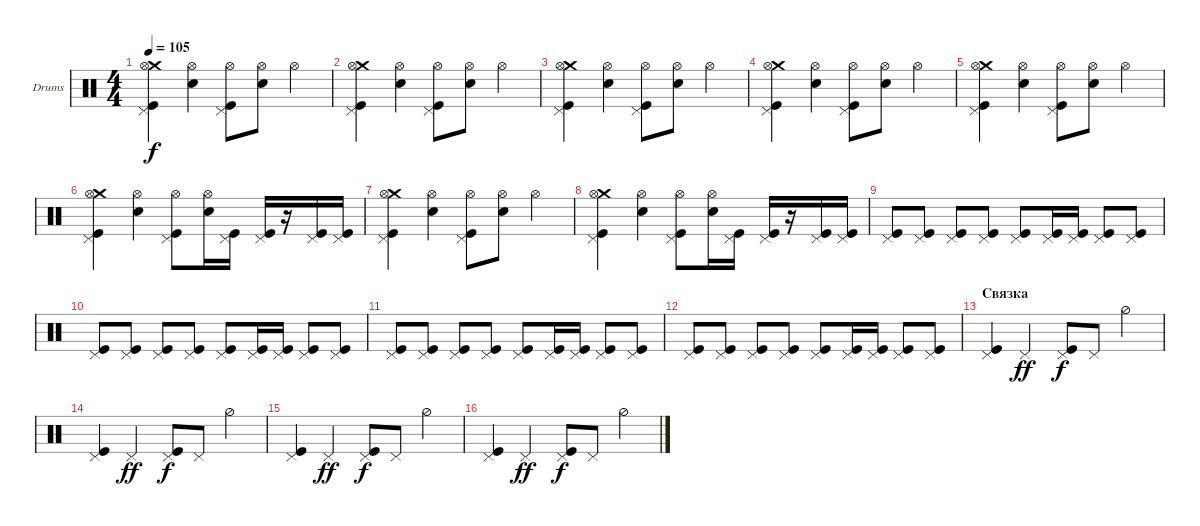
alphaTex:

\defaultSystemsLayout 4
\bracketExtendMode groupsimilarinstruments
\firstSystemTrackNameOrientation horizontal
\otherSystemsTrackNameOrientation horizontal
\track ("Е. Кулаков" "Drums") {instrument percussion}
\staff {score}
\articulation defaults
\ts (4 4)
\tempo 105
\clef neutral
\ks c
("Crash medium (hit)" "Pedal Hi-Hat (hit)" "Kick (hit)" "Hi-Hat (open)").4{dy f} ("Snare (hit) 2" "Hi-Hat (open)").4 ("Pedal Hi-Hat (hit)" "Kick (hit)" "Hi-Hat (open)").8 ("Snare (hit) 2" "Hi-Hat (open)").8 "Hi-Hat (open)".4 |
("Crash medium (hit)" "Pedal Hi-Hat (hit)" "Kick (hit)" "Hi-Hat (open)").4 ("Snare (hit) 2" "Hi-Hat (open)").4 ("Pedal Hi-Hat (hit)" "Kick (hit)" "Hi-Hat (open)").8 ("Snare (hit) 2" "Hi-Hat (open)").8 "Hi-Hat (open)".4 |
("Crash medium (hit)" "Pedal Hi-Hat (hit)" "Kick (hit)" "Hi-Hat (open)").4 ("Snare (hit) 2" "Hi-Hat (open)").4 ("Pedal Hi-Hat (hit)" "Kick (hit)" "Hi-Hat (open)").8 ("Snare (hit) 2" "Hi-Hat (open)").8 "Hi-Hat (open)".4 |
("Crash medium (hit)" "Pedal Hi-Hat (hit)" "Kick (hit)" "Hi-Hat (open)").4 ("Snare (hit) 2" "Hi-Hat (open)").4 ("Pedal Hi-Hat (hit)" "Kick (hit)" "Hi-Hat (open)").8 ("Snare (hit) 2" "Hi-Hat (open)").8 "Hi-Hat (open)".4 |
("Crash medium (hit)" "Pedal Hi-Hat (hit)" "Kick (hit)" "Hi-Hat (open)").4 ("Snare (hit) 2" "Hi-Hat (open)").4 ("Pedal Hi-Hat (hit)" "Kick (hit)" "Hi-Hat (open)").8 ("Snare (hit) 2" "Hi-Hat (open)").8 "Hi-Hat (open)".4 |
("Crash medium (hit)" "Pedal Hi-Hat (hit)" "Kick (hit)" "Hi-Hat (open)").4 ("Snare (hit) 2" "Hi-Hat (open)").4 ("Pedal Hi-Hat (hit)" "Kick (hit)" "Hi-Hat (open)").8 ("Snare (hit) 2" "Hi-Hat (open)").16 ("Pedal Hi-Hat (hit)" "Kick (hit)").16 ("Pedal Hi-Hat (hit)" "Kick (hit)").16 r.16 ("Pedal Hi-Hat (hit)" "Kick (hit)").16 ("Pedal Hi-Hat (hit)" "Kick (hit)").16 |
("Crash medium (hit)" "Pedal Hi-Hat (hit)" "Kick (hit)" "Hi-Hat (open)").4 ("Snare (hit) 2" "Hi-Hat (open)").4 ("Pedal Hi-Hat (hit)" "Kick (hit)" "Hi-Hat (open)").8 ("Snare (hit) 2" "Hi-Hat (open)").8 "Hi-Hat (open)".4 |
("Crash medium (hit)" "Pedal Hi-Hat (hit)" "Kick (hit)" "Hi-Hat (open)").4 ("Snare (hit) 2" "Hi-Hat (open)").4 ("Pedal Hi-Hat (hit)" "Kick (hit)" "Hi-Hat (open)").8 ("Snare (hit) 2" "Hi-Hat (open)").16 ("Pedal Hi-Hat (hit)" "Kick (hit)").16 ("Pedal Hi-Hat (hit)" "Kick (hit)").16 r.16 ("Pedal Hi-Hat (hit)" "Kick (hit)").16 ("Pedal Hi-Hat (hit)" "Kick (hit)").16 |
("Pedal Hi-Hat (hit)" "Kick (hit)").8 ("Pedal Hi-Hat (hit)" "Kick (hit)").8 ("Pedal Hi-Hat (hit)" "Kick (hit)").8 ("Pedal Hi-Hat (hit)" "Kick (hit)").8 ("Pedal Hi-Hat (hit)" "Kick (hit)").8 ("Pedal Hi-Hat (hit)" "Kick (hit)").16 ("Pedal Hi-Hat (hit)" "Kick (hit)").16 ("Pedal Hi-Hat (hit)" "Kick (hit)").8 ("Pedal Hi-Hat (hit)" "Kick (hit)").8 |
("Pedal Hi-Hat (hit)" "Kick (hit)").8 ("Pedal Hi-Hat (hit)" "Kick (hit)").8 ("Pedal Hi-Hat (hit)" "Kick (hit)").8 ("Pedal Hi-Hat (hit)" "Kick (hit)").8 ("Pedal Hi-Hat (hit)" "Kick (hit)").8 ("Pedal Hi-Hat (hit)" "Kick (hit)").16 ("Pedal Hi-Hat (hit)" "Kick (hit)").16 ("Pedal Hi-Hat (hit)" "Kick (hit)").8 ("Pedal Hi-Hat (hit)" "Kick (hit)").8 |
("Pedal Hi-Hat (hit)" "Kick (hit)").8 ("Pedal Hi-Hat (hit)" "Kick (hit)").8 ("Pedal Hi-Hat (hit)" "Kick (hit)").8 ("Pedal Hi-Hat (hit)" "Kick (hit)").8 ("Pedal Hi-Hat (hit)" "Kick (hit)").8 ("Pedal Hi-Hat (hit)" "Kick (hit)").16 ("Pedal Hi-Hat (hit)" "Kick (hit)").16 ("Pedal Hi-Hat (hit)" "Kick (hit)").8 ("Pedal Hi-Hat (hit)" "Kick (hit)").8 |
("Pedal Hi-Hat (hit)" "Kick (hit)").8 ("Pedal Hi-Hat (hit)" "Kick (hit)").8 ("Pedal Hi-Hat (hit)" "Kick (hit)").8 ("Pedal Hi-Hat (hit)" "Kick (hit)").8 ("Pedal Hi-Hat (hit)" "Kick (hit)").8 ("Pedal Hi-Hat (hit)" "Kick (hit)").16 ("Pedal Hi-Hat (hit)" "Kick (hit)").16 ("Pedal Hi-Hat (hit)" "Kick (hit)").8 ("Pedal Hi-Hat (hit)" "Kick (hit)").8 |
\section ("" "Связка")
("Pedal Hi-Hat (hit)" "Kick (hit)").4 "Pedal Hi-Hat (hit)".4{dy ff} ("Pedal Hi-Hat (hit)" "Kick (hit)").8{dy f} "Pedal Hi-Hat (hit)".8 "Hi-Hat (half)".4 |
("Pedal Hi-Hat (hit)" "Kick (hit)").4 "Pedal Hi-Hat (hit)".4{dy ff} ("Pedal Hi-Hat (hit)" "Kick (hit)").8{dy f} "Pedal Hi-Hat (hit)".8 "Hi-Hat (half)".4 |
("Pedal Hi-Hat (hit)" "Kick (hit)").4 "Pedal Hi-Hat (hit)".4{dy ff} ("Pedal Hi-Hat (hit)" "Kick (hit)").8{dy f} "Pedal Hi-Hat (hit)".8 "Hi-Hat (half)".4 |
("Pedal Hi-Hat (hit)" "Kick (hit)").4 "Pedal Hi-Hat (hit)".4{dy ff} ("Pedal Hi-Hat (hit)" "Kick (hit)").8{dy f} "Pedal Hi-Hat (hit)".8 "Hi-Hat (half)".4
